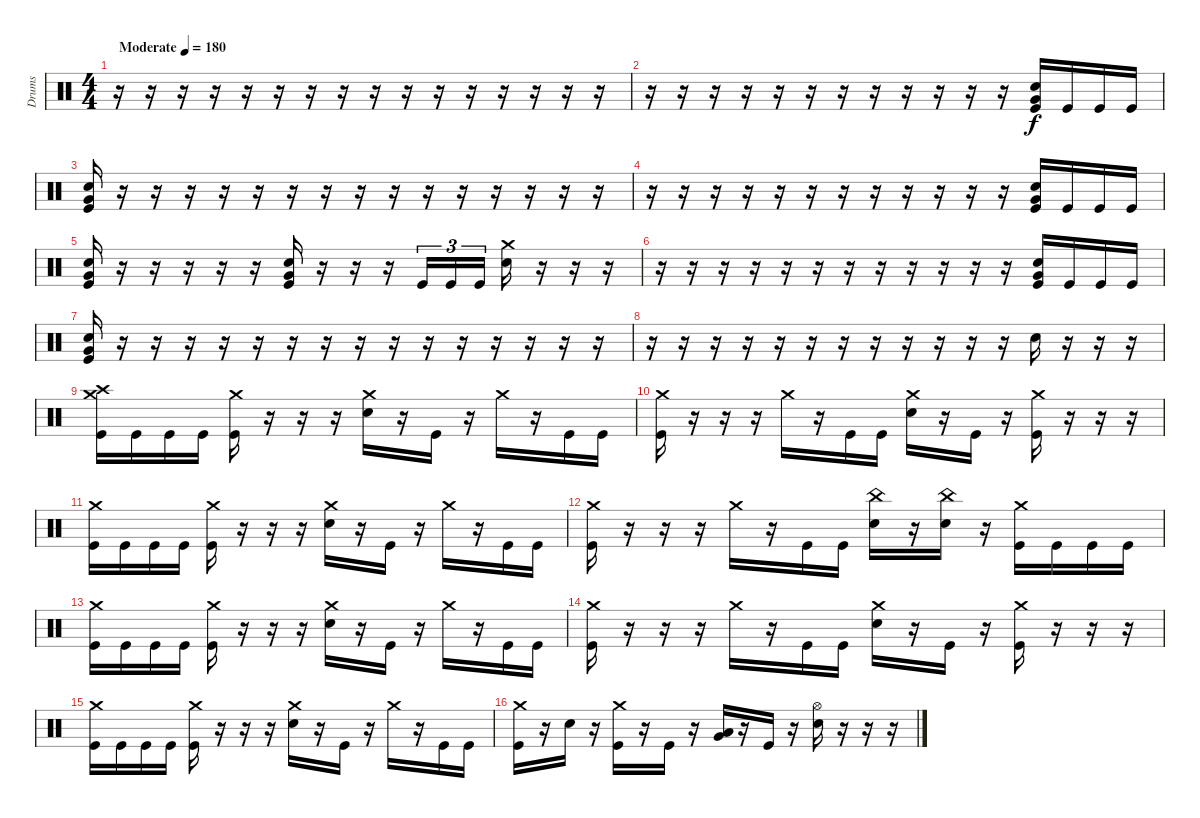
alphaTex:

\track ("Drums" "Drums") {instrument percussion}
\staff {score}
\articulation defaults
\ts (4 4)
\tempo (180 "Moderate")
\clef neutral
\ks c
r.16{dy f} r.16 r.16 r.16 r.16 r.16 r.16 r.16 r.16 r.16 r.16 r.16 r.16 r.16 r.16 r.16 |
r.16 r.16 r.16 r.16 r.16 r.16 r.16 r.16 r.16 r.16 r.16 r.16 ("Snare (hit) 2" "Very Low Tom (hit)" "Kick (hit)").16 "Kick (hit)".16 "Kick (hit)".16 "Kick (hit)".16 |
("Snare (hit) 2" "Very Low Tom (hit)" "Kick (hit)").16 r.16 r.16 r.16 r.16 r.16 r.16 r.16 r.16 r.16 r.16 r.16 r.16 r.16 r.16 r.16 |
r.16 r.16 r.16 r.16 r.16 r.16 r.16 r.16 r.16 r.16 r.16 r.16 ("Snare (hit) 2" "Very Low Tom (hit)" "Kick (hit)").16 "Kick (hit)".16 "Kick (hit)".16 "Kick (hit)".16 |
("Snare (hit) 2" "Very Low Tom (hit)" "Kick (hit)").16 r.16 r.16 r.16 r.16 r.16 ("Snare (hit) 2" "Very Low Tom (hit)" "Kick (hit)").16 r.16 r.16 r.16 "Kick (hit)".16{tu (3 2)} "Kick (hit)".16{tu (3 2)} "Kick (hit)".16{tu (3 2)} ("Crash medium (hit)" "Snare (hit) 2").16 r.16 r.16 r.16 |
r.16 r.16 r.16 r.16 r.16 r.16 r.16 r.16 r.16 r.16 r.16 r.16 ("Snare (hit) 2" "Very Low Tom (hit)" "Kick (hit)").16 "Kick (hit)".16 "Kick (hit)".16 "Kick (hit)".16 |
("Snare (hit) 2" "Very Low Tom (hit)" "Kick (hit)").16 r.16 r.16 r.16 r.16 r.16 r.16 r.16 r.16 r.16 r.16 r.16 r.16 r.16 r.16 r.16 |
r.16 r.16 r.16 r.16 r.16 r.16 r.16 r.16 r.16 r.16 r.16 r.16 "Snare (hit) 2".16 r.16 r.16 r.16 |
("Crash medium (hit)" "Crash high (hit)" "Kick (hit)").16 "Kick (hit)".16 "Kick (hit)".16 "Kick (hit)".16 ("Kick (hit)" "Crash medium (hit)").16 r.16 r.16 r.16 ("Crash medium (hit)" "Snare (hit) 2").16 r.16 "Kick (hit)".16 r.16 "Crash medium (hit)".16 r.16 "Kick (hit)".16 "Kick (hit)".16 |
("Crash medium (hit)" "Kick (hit)").16 r.16 r.16 r.16 "Crash medium (hit)".16 r.16 "Kick (hit)".16 "Kick (hit)".16 ("Crash medium (hit)" "Snare (hit) 2").16 r.16 "Kick (hit)".16 r.16 ("Crash medium (hit)" "Kick (hit)").16 r.16 r.16 r.16 |
("Crash medium (hit)" "Kick (hit)").16 "Kick (hit)".16 "Kick (hit)".16 "Kick (hit)".16 ("Kick (hit)" "Crash medium (hit)").16 r.16 r.16 r.16 ("Crash medium (hit)" "Snare (hit) 2").16 r.16 "Kick (hit)".16 r.16 "Crash medium (hit)".16 r.16 "Kick (hit)".16 "Kick (hit)".16 |
("Crash medium (hit)" "Kick (hit)").16 r.16 r.16 r.16 "Crash medium (hit)".16 r.16 "Kick (hit)".16 "Kick (hit)".16 ("Snare (hit) 2" "China (hit)").16 r.16 ("China (hit)" "Snare (hit) 2").16 r.16 ("Kick (hit)" "Crash medium (hit)").16 "Kick (hit)".16 "Kick (hit)".16 "Kick (hit)".16 |
("Crash medium (hit)" "Kick (hit)").16 "Kick (hit)".16 "Kick (hit)".16 "Kick (hit)".16 ("Kick (hit)" "Crash medium (hit)").16 r.16 r.16 r.16 ("Crash medium (hit)" "Snare (hit) 2").16 r.16 "Kick (hit)".16 r.16 "Crash medium (hit)".16 r.16 "Kick (hit)".16 "Kick (hit)".16 |
("Crash medium (hit)" "Kick (hit)").16 r.16 r.16 r.16 "Crash medium (hit)".16 r.16 "Kick (hit)".16 "Kick (hit)".16 ("Crash medium (hit)" "Snare (hit) 2").16 r.16 "Kick (hit)".16 r.16 ("Crash medium (hit)" "Kick (hit)").16 r.16 r.16 r.16 |
("Crash medium (hit)" "Kick (hit)").16 "Kick (hit)".16 "Kick (hit)".16 "Kick (hit)".16 ("Kick (hit)" "Crash medium (hit)").16 r.16 r.16 r.16 ("Crash medium (hit)" "Snare (hit) 2").16 r.16 "Kick (hit)".16 r.16 "Crash medium (hit)".16 r.16 "Kick (hit)".16 "Kick (hit)".16 |
("Crash medium (hit)" "Kick (hit)").16 r.16 "Snare (hit) 2".16 r.16 ("Crash medium (hit)" "Kick (hit)").16 r.16 "Kick (hit)".16 r.16 ("Low Tom (hit)" "Very Low Tom (hit)").16 r.16 "Kick (hit)".16 r.16 ("Hi-Hat (open)" "Snare (hit) 2").16 r.16 r.16 r.16
